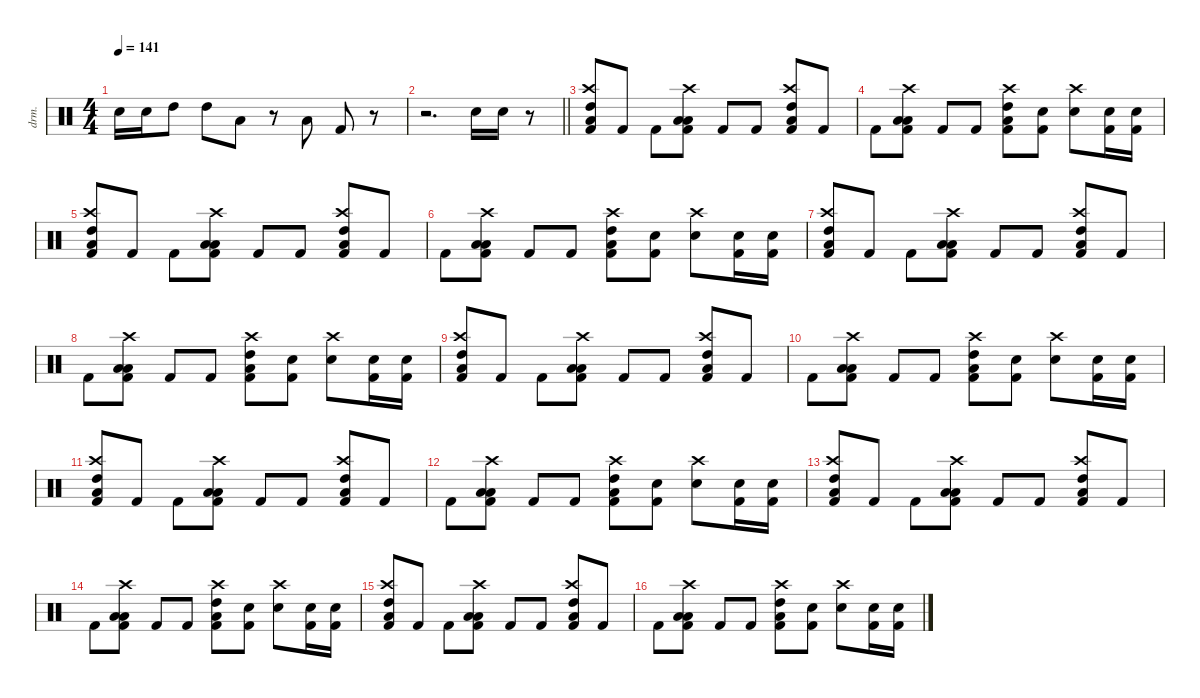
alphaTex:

\defaultSystemsLayout 4
\hideDynamics
\bracketExtendMode nobrackets
\otherSystemsTrackNameOrientation horizontal
\track ("Drum" "drm.") {instrument percussion}
\staff {score}
\articulation defaults
\ts (4 4)
\tempo 141
\clef neutral
\ks c "Snare (hit) 2".16{dy fff beam Down} "Snare (hit) 2".16{beam Down} "High Tom (hit)".8{beam Down} "High Tom (hit)".8{beam Down} "Low Tom (hit)".8{beam Down}
r.8{beam Down} "Low Floor Tom (hit)".8{beam Up} "Kick (hit) 2".8{beam Up} r.8{beam Up} |
\barLineRight lightlight
r.2{d beam Down} "Snare (hit) 2".16{beam Down} "Snare (hit) 2".16{beam Down} r.8{beam Down} |
("Kick (hit) 2" "High Tom (hit)" "Low Tom (hit)" "Crash high (hit)").8{beam Up} "Kick (hit) 2".8{dy ff beam Up} "Kick (hit) 2".8{beam Down} ("Kick (hit) 2" "Low Tom (hit)" "Low Floor Tom (hit)" "Crash high (hit)").8{dy fff beam Down} "Kick (hit) 2".8{dy ff beam Up} "Kick (hit) 2".8{beam Up} ("Kick (hit) 2" "High Tom (hit)" "Crash high (hit)" "Low Tom (hit)").8{dy fff beam Up} "Kick (hit) 2".8{dy ff beam Up} |
"Kick (hit) 2".8{beam Down} ("Kick (hit) 2" "Low Tom (hit)" "Low Floor Tom (hit)" "Crash high (hit)").8{dy fff beam Down} "Kick (hit) 2".8{dy ff beam Up} "Kick (hit) 2".8{beam Up} ("High Tom (hit)" "Kick (hit) 2" "Low Tom (hit)" "Crash high (hit)").8{dy fff beam Down} ("Kick (hit) 2" "Snare (hit) 2").8{dy ff beam Down} ("Snare (hit) 2" "Crash high (hit)").8{dy fff beam Down} ("Kick (hit) 2" "Snare (hit) 2").16{beam Down} ("Kick (hit) 2" "Snare (hit) 2").16{dy ff beam Down} |
("Kick (hit) 2" "High Tom (hit)" "Low Tom (hit)" "Crash high (hit)").8{dy fff beam Up} "Kick (hit) 2".8{dy ff beam Up} "Kick (hit) 2".8{beam Down} ("Kick (hit) 2" "Low Tom (hit)" "Low Floor Tom (hit)" "Crash high (hit)").8{dy fff beam Down} "Kick (hit) 2".8{dy ff beam Up} "Kick (hit) 2".8{beam Up} ("Kick (hit) 2" "High Tom (hit)" "Crash high (hit)" "Low Tom (hit)").8{dy fff beam Up} "Kick (hit) 2".8{dy ff beam Up} |
"Kick (hit) 2".8{beam Down} ("Kick (hit) 2" "Low Tom (hit)" "Low Floor Tom (hit)" "Crash high (hit)").8{dy fff beam Down} "Kick (hit) 2".8{dy ff beam Up} "Kick (hit) 2".8{beam Up} ("High Tom (hit)" "Kick (hit) 2" "Low Tom (hit)" "Crash high (hit)").8{dy fff beam Down} ("Kick (hit) 2" "Snare (hit) 2").8{dy ff beam Down} ("Snare (hit) 2" "Crash high (hit)").8{dy fff beam Down} ("Kick (hit) 2" "Snare (hit) 2").16{beam Down} ("Kick (hit) 2" "Snare (hit) 2").16{dy ff beam Down} |
("Kick (hit) 2" "High Tom (hit)" "Low Tom (hit)" "Crash high (hit)").8{dy fff beam Up} "Kick (hit) 2".8{dy ff beam Up} "Kick (hit) 2".8{beam Down} ("Kick (hit) 2" "Low Tom (hit)" "Low Floor Tom (hit)" "Crash high (hit)").8{dy fff beam Down} "Kick (hit) 2".8{dy ff beam Up} "Kick (hit) 2".8{beam Up} ("Kick (hit) 2" "High Tom (hit)" "Crash high (hit)" "Low Tom (hit)").8{dy fff beam Up} "Kick (hit) 2".8{dy ff beam Up} |
"Kick (hit) 2".8{beam Down} ("Kick (hit) 2" "Low Tom (hit)" "Low Floor Tom (hit)" "Crash high (hit)").8{dy fff beam Down} "Kick (hit) 2".8{dy ff beam Up} "Kick (hit) 2".8{beam Up} ("High Tom (hit)" "Kick (hit) 2" "Low Tom (hit)" "Crash high (hit)").8{dy fff beam Down} ("Kick (hit) 2" "Snare (hit) 2").8{dy ff beam Down} ("Snare (hit) 2" "Crash high (hit)").8{dy fff beam Down} ("Kick (hit) 2" "Snare (hit) 2").16{beam Down} ("Kick (hit) 2" "Snare (hit) 2").16{dy ff beam Down} |
("Kick (hit) 2" "High Tom (hit)" "Low Tom (hit)" "Crash high (hit)").8{dy fff beam Up} "Kick (hit) 2".8{dy ff beam Up} "Kick (hit) 2".8{beam Down} ("Kick (hit) 2" "Low Tom (hit)" "Low Floor Tom (hit)" "Crash high (hit)").8{dy fff beam Down} "Kick (hit) 2".8{dy ff beam Up} "Kick (hit) 2".8{beam Up} ("Kick (hit) 2" "High Tom (hit)" "Crash high (hit)" "Low Tom (hit)").8{dy fff beam Up} "Kick (hit) 2".8{dy ff beam Up} |
"Kick (hit) 2".8{beam Down} ("Kick (hit) 2" "Low Tom (hit)" "Low Floor Tom (hit)" "Crash high (hit)").8{dy fff beam Down} "Kick (hit) 2".8{dy ff beam Up} "Kick (hit) 2".8{beam Up} ("High Tom (hit)" "Kick (hit) 2" "Low Tom (hit)" "Crash high (hit)").8{dy fff beam Down} ("Kick (hit) 2" "Snare (hit) 2").8{dy ff beam Down} ("Snare (hit) 2" "Crash high (hit)").8{dy fff beam Down} ("Kick (hit) 2" "Snare (hit) 2").16{beam Down} ("Kick (hit) 2" "Snare (hit) 2").16{dy ff beam Down} |
("Kick (hit) 2" "High Tom (hit)" "Low Tom (hit)" "Crash high (hit)").8{dy fff beam Up} "Kick (hit) 2".8{dy ff beam Up} "Kick (hit) 2".8{beam Down} ("Kick (hit) 2" "Low Tom (hit)" "Low Floor Tom (hit)" "Crash high (hit)").8{dy fff beam Down} "Kick (hit) 2".8{dy ff beam Up} "Kick (hit) 2".8{beam Up} ("Kick (hit) 2" "High Tom (hit)" "Crash high (hit)" "Low Tom (hit)").8{dy fff beam Up} "Kick (hit) 2".8{dy ff beam Up} |
"Kick (hit) 2".8{beam Down} ("Kick (hit) 2" "Low Tom (hit)" "Low Floor Tom (hit)" "Crash high (hit)").8{dy fff beam Down} "Kick (hit) 2".8{dy ff beam Up} "Kick (hit) 2".8{beam Up} ("High Tom (hit)" "Kick (hit) 2" "Low Tom (hit)" "Crash high (hit)").8{dy fff beam Down} ("Kick (hit) 2" "Snare (hit) 2").8{dy ff beam Down} ("Snare (hit) 2" "Crash high (hit)").8{dy fff beam Down} ("Kick (hit) 2" "Snare (hit) 2").16{beam Down} ("Kick (hit) 2" "Snare (hit) 2").16{dy ff beam Down} |
("Kick (hit) 2" "High Tom (hit)" "Low Tom (hit)" "Crash high (hit)").8{dy fff beam Up} "Kick (hit) 2".8{dy ff beam Up} "Kick (hit) 2".8{beam Down} ("Kick (hit) 2" "Low Tom (hit)" "Low Floor Tom (hit)" "Crash high (hit)").8{dy fff beam Down} "Kick (hit) 2".8{dy ff beam Up} "Kick (hit) 2".8{beam Up} ("Kick (hit) 2" "High Tom (hit)" "Crash high (hit)" "Low Tom (hit)").8{dy fff beam Up} "Kick (hit) 2".8{dy ff beam Up} |
"Kick (hit) 2".8{beam Down} ("Kick (hit) 2" "Low Tom (hit)" "Low Floor Tom (hit)" "Crash high (hit)").8{dy fff beam Down} "Kick (hit) 2".8{dy ff beam Up} "Kick (hit) 2".8{beam Up} ("High Tom (hit)" "Kick (hit) 2" "Low Tom (hit)" "Crash high (hit)").8{dy fff beam Down} ("Kick (hit) 2" "Snare (hit) 2").8{dy ff beam Down} ("Snare (hit) 2" "Crash high (hit)").8{dy fff beam Down} ("Kick (hit) 2" "Snare (hit) 2").16{beam Down} ("Kick (hit) 2" "Snare (hit) 2").16{dy ff beam Down} |
("Kick (hit) 2" "High Tom (hit)" "Low Tom (hit)" "Crash high (hit)").8{dy fff beam Up} "Kick (hit) 2".8{dy ff beam Up} "Kick (hit) 2".8{beam Down} ("Kick (hit) 2" "Low Tom (hit)" "Low Floor Tom (hit)" "Crash high (hit)").8{dy fff beam Down} "Kick (hit) 2".8{dy ff beam Up} "Kick (hit) 2".8{beam Up} ("Kick (hit) 2" "High Tom (hit)" "Crash high (hit)" "Low Tom (hit)").8{dy fff beam Up} "Kick (hit) 2".8{dy ff beam Up} |
"Kick (hit) 2".8{beam Down} ("Kick (hit) 2" "Low Tom (hit)" "Low Floor Tom (hit)" "Crash high (hit)").8{dy fff beam Down} "Kick (hit) 2".8{dy ff beam Up} "Kick (hit) 2".8{beam Up} ("High Tom (hit)" "Kick (hit) 2" "Low Tom (hit)" "Crash high (hit)").8{dy fff beam Down} ("Kick (hit) 2" "Snare (hit) 2").8{dy ff beam Down} ("Snare (hit) 2" "Crash high (hit)").8{dy fff beam Down} ("Kick (hit) 2" "Snare (hit) 2").16{beam Down} ("Kick (hit) 2" "Snare (hit) 2").16{dy ff beam Down}
